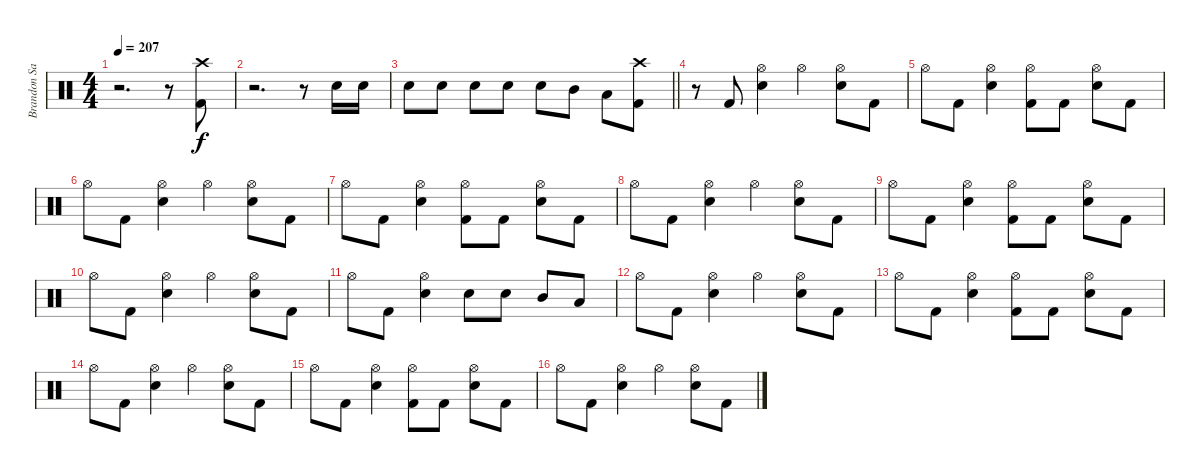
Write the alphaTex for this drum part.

\track ("Brandon Saller" "Brandon Sa") {instrument percussion}
\staff {score}
\articulation defaults
\ts (4 4)
\tempo 207
\clef neutral
\ks c
r.2{d dy f} r.8 ("Crash high (hit)" "Kick (hit) 2").8 |
r.2{d} r.8 "Electric Snare (hit)".16 "Electric Snare (hit)".16 |
\barLineRight lightlight "Electric Snare (hit)".8 "Electric Snare (hit)".8 "Electric Snare (hit)".8 "Electric Snare (hit)".8 "Electric Snare (hit)".8 "Mid Tom (hit)".8 "Low Tom (hit)".8
("Crash high (hit)" "Kick (hit) 2").8 |
r.8 "Kick (hit) 2".8 ("Hi-Hat (open)" "Electric Snare (hit)").4 "Hi-Hat (open)".4 ("Hi-Hat (open)" "Electric Snare (hit)").8 "Kick (hit) 2".8 |
"Hi-Hat (open)".8 "Kick (hit) 2".8 ("Hi-Hat (open)" "Electric Snare (hit)").4 ("Hi-Hat (open)" "Kick (hit) 2").8 "Kick (hit) 2".8 ("Hi-Hat (open)" "Electric Snare (hit)").8 "Kick (hit) 2".8 |
"Hi-Hat (open)".8 "Kick (hit) 2".8 ("Hi-Hat (open)" "Electric Snare (hit)").4 "Hi-Hat (open)".4 ("Hi-Hat (open)" "Electric Snare (hit)").8 "Kick (hit) 2".8 |
"Hi-Hat (open)".8 "Kick (hit) 2".8 ("Hi-Hat (open)" "Electric Snare (hit)").4 ("Hi-Hat (open)" "Kick (hit) 2").8 "Kick (hit) 2".8 ("Hi-Hat (open)" "Electric Snare (hit)").8 "Kick (hit) 2".8 |
"Hi-Hat (open)".8 "Kick (hit) 2".8 ("Hi-Hat (open)" "Electric Snare (hit)").4 "Hi-Hat (open)".4 ("Hi-Hat (open)" "Electric Snare (hit)").8 "Kick (hit) 2".8 |
"Hi-Hat (open)".8 "Kick (hit) 2".8 ("Hi-Hat (open)" "Electric Snare (hit)").4 ("Hi-Hat (open)" "Kick (hit) 2").8 "Kick (hit) 2".8 ("Hi-Hat (open)" "Electric Snare (hit)").8 "Kick (hit) 2".8 |
"Hi-Hat (open)".8 "Kick (hit) 2".8 ("Hi-Hat (open)" "Electric Snare (hit)").4 "Hi-Hat (open)".4 ("Hi-Hat (open)" "Electric Snare (hit)").8 "Kick (hit) 2".8 |
"Hi-Hat (open)".8 "Kick (hit) 2".8 ("Hi-Hat (open)" "Electric Snare (hit)").4 "Electric Snare (hit)".8 "Electric Snare (hit)".8 "Mid Tom (hit)".8 "Low Tom (hit)".8 |
"Hi-Hat (open)".8 "Kick (hit) 2".8 ("Hi-Hat (open)" "Electric Snare (hit)").4 "Hi-Hat (open)".4 ("Hi-Hat (open)" "Electric Snare (hit)").8 "Kick (hit) 2".8 |
"Hi-Hat (open)".8 "Kick (hit) 2".8 ("Hi-Hat (open)" "Electric Snare (hit)").4 ("Hi-Hat (open)" "Kick (hit) 2").8 "Kick (hit) 2".8 ("Hi-Hat (open)" "Electric Snare (hit)").8 "Kick (hit) 2".8 |
"Hi-Hat (open)".8 "Kick (hit) 2".8 ("Hi-Hat (open)" "Electric Snare (hit)").4 "Hi-Hat (open)".4 ("Hi-Hat (open)" "Electric Snare (hit)").8 "Kick (hit) 2".8 |
"Hi-Hat (open)".8 "Kick (hit) 2".8 ("Hi-Hat (open)" "Electric Snare (hit)").4 ("Hi-Hat (open)" "Kick (hit) 2").8 "Kick (hit) 2".8 ("Hi-Hat (open)" "Electric Snare (hit)").8 "Kick (hit) 2".8 |
"Hi-Hat (open)".8 "Kick (hit) 2".8 ("Hi-Hat (open)" "Electric Snare (hit)").4 "Hi-Hat (open)".4 ("Hi-Hat (open)" "Electric Snare (hit)").8 "Kick (hit) 2".8
